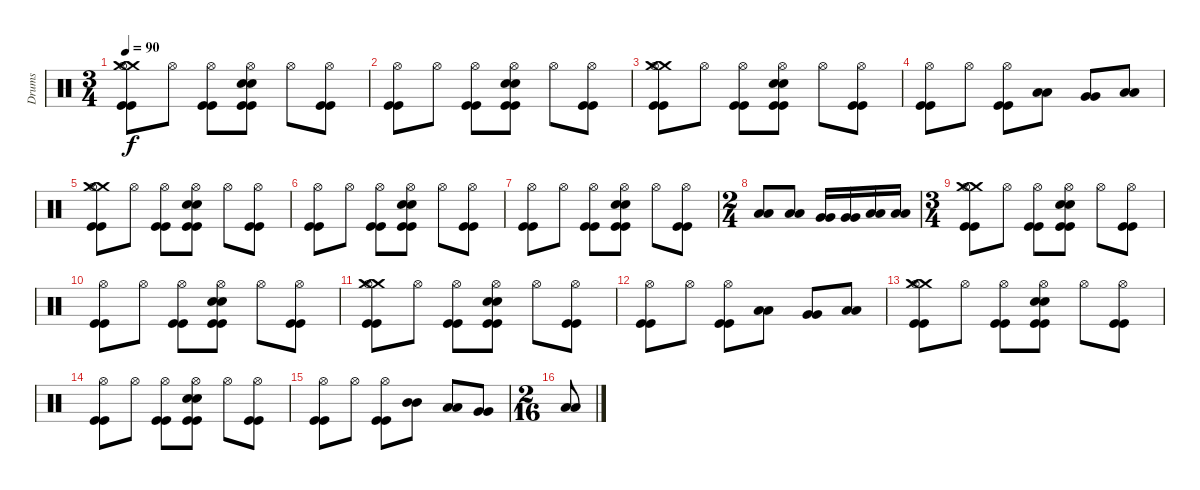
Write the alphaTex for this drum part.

\track ("Drums" "Drums") {instrument percussion}
\staff {score}
\articulation defaults
\ts (3 4)
\tempo 90
\clef neutral
\ks c
("Crash medium (hit)" "Hi-Hat (open)" "Crash medium (hit)" "Kick (hit)" "Kick (hit)").8{dy f} "Hi-Hat (open)".8 ("Hi-Hat (open)" "Kick (hit)" "Kick (hit)").8 ("Hi-Hat (open)" "Electric Snare (hit)" "Electric Snare (hit)" "Kick (hit)" "Kick (hit)").8 "Hi-Hat (open)".8 ("Hi-Hat (open)" "Kick (hit)" "Kick (hit)").8 |
("Hi-Hat (open)" "Kick (hit)" "Kick (hit)").8 "Hi-Hat (open)".8 ("Hi-Hat (open)" "Kick (hit)" "Kick (hit)").8 ("Hi-Hat (open)" "Electric Snare (hit)" "Electric Snare (hit)" "Kick (hit)" "Kick (hit)").8 "Hi-Hat (open)".8 ("Hi-Hat (open)" "Kick (hit)" "Kick (hit)").8 |
("Crash medium (hit)" "Hi-Hat (open)" "Crash medium (hit)" "Kick (hit)" "Kick (hit)").8 "Hi-Hat (open)".8 ("Hi-Hat (open)" "Kick (hit)" "Kick (hit)").8 ("Hi-Hat (open)" "Snare (hit)" "Electric Snare (hit)" "Kick (hit)" "Kick (hit)").8 "Hi-Hat (open)".8 ("Hi-Hat (open)" "Kick (hit)" "Kick (hit)").8 |
("Hi-Hat (open)" "Kick (hit)" "Kick (hit)").8 "Hi-Hat (open)".8 ("Hi-Hat (open)" "Kick (hit)" "Kick (hit)").8 ("Low Tom (hit)" "Low Tom (hit)").8 ("Very Low Tom (hit)" "Very Low Tom (hit)").8 ("Low Floor Tom (hit)" "Low Floor Tom (hit)").8 |
("Crash medium (hit)" "Hi-Hat (open)" "Crash medium (hit)" "Kick (hit)" "Kick (hit)").8 "Hi-Hat (open)".8 ("Hi-Hat (open)" "Kick (hit)" "Kick (hit)").8 ("Hi-Hat (open)" "Electric Snare (hit)" "Electric Snare (hit)" "Kick (hit)" "Kick (hit)").8 "Hi-Hat (open)".8 ("Hi-Hat (open)" "Kick (hit)" "Kick (hit)").8 |
("Hi-Hat (open)" "Kick (hit)" "Kick (hit)").8 "Hi-Hat (open)".8 ("Hi-Hat (open)" "Kick (hit)" "Kick (hit)").8 ("Hi-Hat (open)" "Electric Snare (hit)" "Electric Snare (hit)" "Kick (hit)" "Kick (hit)").8 "Hi-Hat (open)".8 ("Hi-Hat (open)" "Kick (hit)" "Kick (hit)").8 |
("Hi-Hat (open)" "Kick (hit)" "Kick (hit)").8 "Hi-Hat (open)".8 ("Hi-Hat (open)" "Kick (hit)" "Kick (hit)").8 ("Hi-Hat (open)" "Electric Snare (hit)" "Electric Snare (hit)" "Kick (hit)" "Kick (hit)").8 "Hi-Hat (open)".8 ("Hi-Hat (open)" "Kick (hit)" "Kick (hit)").8 |
\ts (2 4)
("Low Tom (hit)" "Low Tom (hit)").8 ("Low Tom (hit)" "Low Tom (hit)").8 ("Very Low Tom (hit)" "Very Low Tom (hit)").16 ("Very Low Tom (hit)" "Very Low Tom (hit)").16 ("Low Floor Tom (hit)" "Low Floor Tom (hit)").16 ("Low Floor Tom (hit)" "Low Floor Tom (hit)").16 |
\ts (3 4)
("Crash medium (hit)" "Hi-Hat (open)" "Crash medium (hit)" "Kick (hit)" "Kick (hit)").8{volume 12} "Hi-Hat (open)".8 ("Hi-Hat (open)" "Kick (hit)" "Kick (hit)").8 ("Hi-Hat (open)" "Electric Snare (hit)" "Electric Snare (hit)" "Kick (hit)" "Kick (hit)").8 "Hi-Hat (open)".8 ("Hi-Hat (open)" "Kick (hit)" "Kick (hit)").8 |
("Hi-Hat (open)" "Kick (hit)" "Kick (hit)").8 "Hi-Hat (open)".8 ("Hi-Hat (open)" "Kick (hit)" "Kick (hit)").8 ("Hi-Hat (open)" "Electric Snare (hit)" "Electric Snare (hit)" "Kick (hit)" "Kick (hit)").8 "Hi-Hat (open)".8 ("Hi-Hat (open)" "Kick (hit)" "Kick (hit)").8 |
("Crash medium (hit)" "Hi-Hat (open)" "Crash medium (hit)" "Kick (hit)" "Kick (hit)").8{volume 9} "Hi-Hat (open)".8 ("Hi-Hat (open)" "Kick (hit)" "Kick (hit)").8 ("Hi-Hat (open)" "Snare (hit)" "Electric Snare (hit)" "Kick (hit)" "Kick (hit)").8 "Hi-Hat (open)".8 ("Hi-Hat (open)" "Kick (hit)" "Kick (hit)").8 |
("Hi-Hat (open)" "Kick (hit)" "Kick (hit)").8 "Hi-Hat (open)".8 ("Hi-Hat (open)" "Kick (hit)" "Kick (hit)").8 ("Low Tom (hit)" "Low Tom (hit)").8 ("Very Low Tom (hit)" "Very Low Tom (hit)").8 ("Low Floor Tom (hit)" "Low Floor Tom (hit)").8 |
("Crash medium (hit)" "Hi-Hat (open)" "Crash medium (hit)" "Kick (hit)" "Kick (hit)").8{volume 5} "Hi-Hat (open)".8 ("Hi-Hat (open)" "Kick (hit)" "Kick (hit)").8 ("Hi-Hat (open)" "Electric Snare (hit)" "Electric Snare (hit)" "Kick (hit)" "Kick (hit)").8 "Hi-Hat (open)".8 ("Hi-Hat (open)" "Kick (hit)" "Kick (hit)").8 |
("Hi-Hat (open)" "Kick (hit)" "Kick (hit)").8 "Hi-Hat (open)".8 ("Hi-Hat (open)" "Kick (hit)" "Kick (hit)").8 ("Hi-Hat (open)" "Electric Snare (hit)" "Electric Snare (hit)" "Kick (hit)" "Kick (hit)").8 "Hi-Hat (open)".8 ("Hi-Hat (open)" "Kick (hit)" "Kick (hit)").8 |
("Hi-Hat (open)" "Kick (hit)" "Kick (hit)").8{volume 0} "Hi-Hat (open)".8 ("Hi-Hat (open)" "Kick (hit)" "Kick (hit)").8 ("Mid Tom (hit)" "Mid Tom (hit)").8 ("Low Tom (hit)" "Low Tom (hit)").8 ("Very Low Tom (hit)" "Very Low Tom (hit)").8 |
\ts (2 16)
("Low Floor Tom (hit)" "Low Floor Tom (hit)").8
